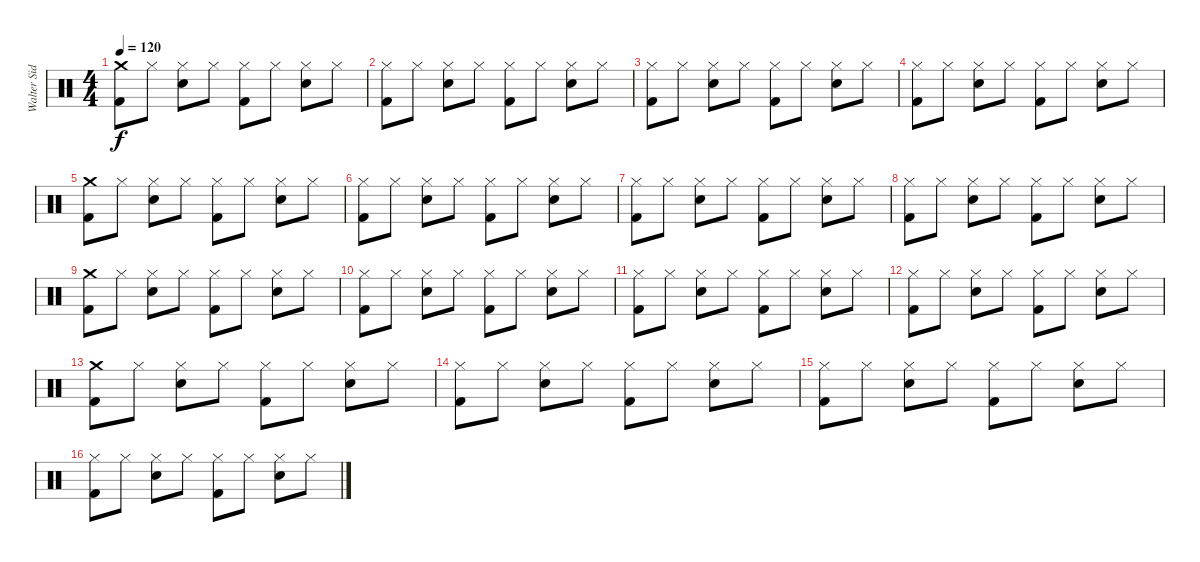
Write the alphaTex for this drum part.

\track ("Walter Sidotti" "Walter Sid") {instrument percussion}
\staff {score}
\articulation defaults
\ts (4 4)
\tempo 120
\clef neutral
\ks c
("Kick (hit) 2" "Crash medium (hit)").8{dy f} "Hi-Hat (closed)".8 ("Electric Snare (hit)" "Hi-Hat (closed)").8 "Hi-Hat (closed)".8 ("Kick (hit) 2" "Hi-Hat (closed)").8 "Hi-Hat (closed)".8 ("Electric Snare (hit)" "Hi-Hat (closed)").8 "Hi-Hat (closed)".8 |
("Kick (hit) 2" "Hi-Hat (closed)").8 "Hi-Hat (closed)".8 ("Electric Snare (hit)" "Hi-Hat (closed)").8 "Hi-Hat (closed)".8 ("Kick (hit) 2" "Hi-Hat (closed)").8 "Hi-Hat (closed)".8 ("Electric Snare (hit)" "Hi-Hat (closed)").8 "Hi-Hat (closed)".8 |
("Kick (hit) 2" "Hi-Hat (closed)").8 "Hi-Hat (closed)".8 ("Electric Snare (hit)" "Hi-Hat (closed)").8 "Hi-Hat (closed)".8 ("Kick (hit) 2" "Hi-Hat (closed)").8 "Hi-Hat (closed)".8 ("Electric Snare (hit)" "Hi-Hat (closed)").8 "Hi-Hat (closed)".8 |
("Kick (hit) 2" "Hi-Hat (closed)").8 "Hi-Hat (closed)".8 ("Electric Snare (hit)" "Hi-Hat (closed)").8 "Hi-Hat (closed)".8 ("Kick (hit) 2" "Hi-Hat (closed)").8 "Hi-Hat (closed)".8 ("Electric Snare (hit)" "Hi-Hat (closed)").8 "Hi-Hat (closed)".8 |
("Kick (hit) 2" "Crash medium (hit)").8 "Hi-Hat (closed)".8 ("Electric Snare (hit)" "Hi-Hat (closed)").8 "Hi-Hat (closed)".8 ("Kick (hit) 2" "Hi-Hat (closed)").8 "Hi-Hat (closed)".8 ("Electric Snare (hit)" "Hi-Hat (closed)").8 "Hi-Hat (closed)".8 |
("Kick (hit) 2" "Hi-Hat (closed)").8 "Hi-Hat (closed)".8 ("Electric Snare (hit)" "Hi-Hat (closed)").8 "Hi-Hat (closed)".8 ("Kick (hit) 2" "Hi-Hat (closed)").8 "Hi-Hat (closed)".8 ("Electric Snare (hit)" "Hi-Hat (closed)").8 "Hi-Hat (closed)".8 |
("Kick (hit) 2" "Hi-Hat (closed)").8 "Hi-Hat (closed)".8 ("Electric Snare (hit)" "Hi-Hat (closed)").8 "Hi-Hat (closed)".8 ("Kick (hit) 2" "Hi-Hat (closed)").8 "Hi-Hat (closed)".8 ("Electric Snare (hit)" "Hi-Hat (closed)").8 "Hi-Hat (closed)".8 |
("Kick (hit) 2" "Hi-Hat (closed)").8 "Hi-Hat (closed)".8 ("Electric Snare (hit)" "Hi-Hat (closed)").8 "Hi-Hat (closed)".8 ("Kick (hit) 2" "Hi-Hat (closed)").8 "Hi-Hat (closed)".8 ("Electric Snare (hit)" "Hi-Hat (closed)").8 "Hi-Hat (closed)".8 |
("Kick (hit) 2" "Crash medium (hit)").8 "Hi-Hat (closed)".8 ("Electric Snare (hit)" "Hi-Hat (closed)").8 "Hi-Hat (closed)".8 ("Kick (hit) 2" "Hi-Hat (closed)").8 "Hi-Hat (closed)".8 ("Electric Snare (hit)" "Hi-Hat (closed)").8 "Hi-Hat (closed)".8 |
("Kick (hit) 2" "Hi-Hat (closed)").8 "Hi-Hat (closed)".8 ("Electric Snare (hit)" "Hi-Hat (closed)").8 "Hi-Hat (closed)".8 ("Kick (hit) 2" "Hi-Hat (closed)").8 "Hi-Hat (closed)".8 ("Electric Snare (hit)" "Hi-Hat (closed)").8 "Hi-Hat (closed)".8 |
("Kick (hit) 2" "Hi-Hat (closed)").8 "Hi-Hat (closed)".8 ("Electric Snare (hit)" "Hi-Hat (closed)").8 "Hi-Hat (closed)".8 ("Kick (hit) 2" "Hi-Hat (closed)").8 "Hi-Hat (closed)".8 ("Electric Snare (hit)" "Hi-Hat (closed)").8 "Hi-Hat (closed)".8 |
("Kick (hit) 2" "Hi-Hat (closed)").8 "Hi-Hat (closed)".8 ("Electric Snare (hit)" "Hi-Hat (closed)").8 "Hi-Hat (closed)".8 ("Kick (hit) 2" "Hi-Hat (closed)").8 "Hi-Hat (closed)".8 ("Electric Snare (hit)" "Hi-Hat (closed)").8 "Hi-Hat (closed)".8 |
("Kick (hit) 2" "Crash medium (hit)").8 "Hi-Hat (closed)".8 ("Electric Snare (hit)" "Hi-Hat (closed)").8 "Hi-Hat (closed)".8 ("Kick (hit) 2" "Hi-Hat (closed)").8 "Hi-Hat (closed)".8 ("Electric Snare (hit)" "Hi-Hat (closed)").8 "Hi-Hat (closed)".8 |
("Kick (hit) 2" "Hi-Hat (closed)").8 "Hi-Hat (closed)".8 ("Electric Snare (hit)" "Hi-Hat (closed)").8 "Hi-Hat (closed)".8 ("Kick (hit) 2" "Hi-Hat (closed)").8 "Hi-Hat (closed)".8 ("Electric Snare (hit)" "Hi-Hat (closed)").8 "Hi-Hat (closed)".8 |
("Kick (hit) 2" "Hi-Hat (closed)").8 "Hi-Hat (closed)".8 ("Electric Snare (hit)" "Hi-Hat (closed)").8 "Hi-Hat (closed)".8 ("Kick (hit) 2" "Hi-Hat (closed)").8 "Hi-Hat (closed)".8 ("Electric Snare (hit)" "Hi-Hat (closed)").8 "Hi-Hat (closed)".8 |
("Kick (hit) 2" "Hi-Hat (closed)").8 "Hi-Hat (closed)".8 ("Electric Snare (hit)" "Hi-Hat (closed)").8 "Hi-Hat (closed)".8 ("Kick (hit) 2" "Hi-Hat (closed)").8 "Hi-Hat (closed)".8 ("Electric Snare (hit)" "Hi-Hat (closed)").8 "Hi-Hat (closed)".8
